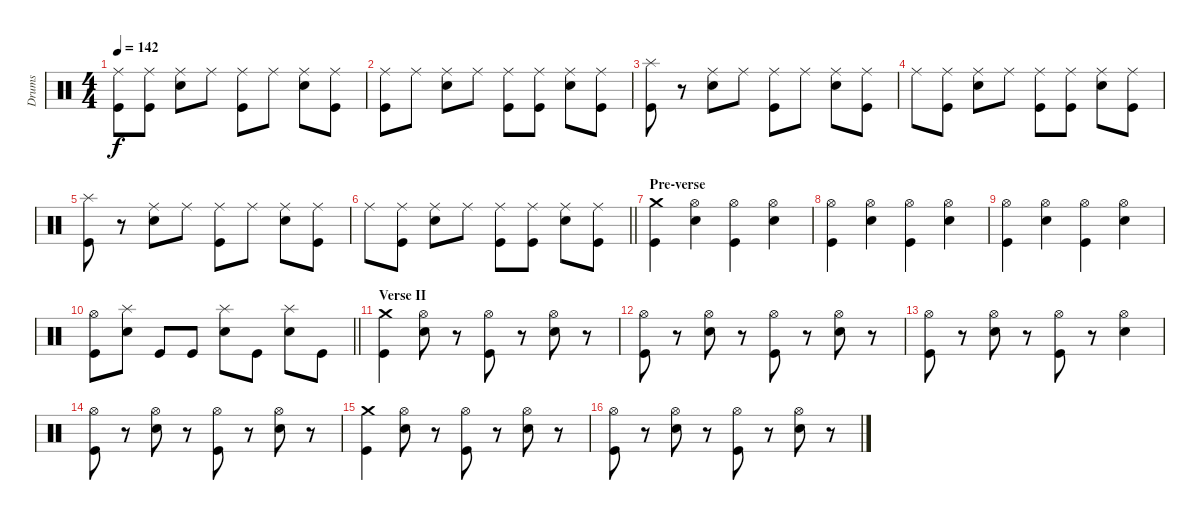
\track ("Drums" "Drums") {instrument percussion}
\staff {score}
\articulation defaults
\ts (4 4)
\tempo 142
\clef neutral
\ks c
("Ride (middle)" "Kick (hit)").8{dy f} ("Ride (middle)" "Kick (hit)").8 ("Ride (middle)" "Electric Snare (hit)").8 "Ride (middle)".8 ("Ride (middle)" "Kick (hit)").8 "Ride (middle)".8 ("Ride (middle)" "Electric Snare (hit)").8 ("Ride (middle)" "Kick (hit)").8 |
("Ride (middle)" "Kick (hit)").8 "Ride (middle)".8 ("Ride (middle)" "Electric Snare (hit)").8 "Ride (middle)".8 ("Ride (middle)" "Kick (hit)").8 ("Ride (middle)" "Kick (hit)").8 ("Ride (middle)" "Electric Snare (hit)").8 ("Ride (middle)" "Kick (hit)").8 |
("Splash (hit)" "Kick (hit)").8 r.8 ("Ride (middle)" "Electric Snare (hit)").8 "Ride (middle)".8 ("Ride (middle)" "Kick (hit)").8 "Ride (middle)".8 ("Ride (middle)" "Electric Snare (hit)").8 ("Ride (middle)" "Kick (hit)").8 |
"Ride (middle)".8 ("Ride (middle)" "Kick (hit)").8 ("Ride (middle)" "Electric Snare (hit)").8 "Ride (middle)".8 ("Ride (middle)" "Kick (hit)").8 ("Ride (middle)" "Kick (hit)").8 ("Ride (middle)" "Electric Snare (hit)").8 ("Ride (middle)" "Kick (hit)").8 |
("Splash (hit)" "Kick (hit)").8 r.8 ("Ride (middle)" "Electric Snare (hit)").8 "Ride (middle)".8 ("Ride (middle)" "Kick (hit)").8 "Ride (middle)".8 ("Ride (middle)" "Electric Snare (hit)").8 ("Ride (middle)" "Kick (hit)").8 |
\barLineRight lightlight "Ride (middle)".8
("Ride (middle)" "Kick (hit)").8 ("Ride (middle)" "Electric Snare (hit)").8 "Ride (middle)".8 ("Ride (middle)" "Kick (hit)").8 ("Ride (middle)" "Kick (hit)").8 ("Ride (middle)" "Electric Snare (hit)").8 ("Ride (middle)" "Kick (hit)").8 |
\section ("" "Pre-verse")
("Crash medium (hit)" "Kick (hit)").4 ("Hi-Hat (open)" "Electric Snare (hit)").4 ("Hi-Hat (open)" "Kick (hit)").4 ("Hi-Hat (open)" "Electric Snare (hit)").4 |
("Hi-Hat (open)" "Kick (hit)").4 ("Hi-Hat (open)" "Electric Snare (hit)").4 ("Hi-Hat (open)" "Kick (hit)").4 ("Hi-Hat (open)" "Electric Snare (hit)").4 |
("Hi-Hat (open)" "Kick (hit)").4 ("Hi-Hat (open)" "Electric Snare (hit)").4 ("Hi-Hat (open)" "Kick (hit)").4 ("Hi-Hat (open)" "Electric Snare (hit)").4 |
\barLineRight lightlight
("Hi-Hat (open)" "Kick (hit)").8 ("Splash (hit)" "Electric Snare (hit)").8 "Kick (hit)".8 "Kick (hit)".8 ("Splash (hit)" "Electric Snare (hit)").8 "Kick (hit)".8 ("Splash (hit)" "Electric Snare (hit)").8 "Kick (hit)".8 |
\section ("" "Verse II")
("Crash medium (hit)" "Kick (hit)").4 ("Hi-Hat (open)" "Electric Snare (hit)").8 r.8 ("Hi-Hat (open)" "Kick (hit)").8 r.8 ("Hi-Hat (open)" "Electric Snare (hit)").8 r.8 |
("Hi-Hat (open)" "Kick (hit)").8 r.8 ("Hi-Hat (open)" "Electric Snare (hit)").8 r.8 ("Hi-Hat (open)" "Kick (hit)").8 r.8 ("Hi-Hat (open)" "Electric Snare (hit)").8 r.8 |
("Hi-Hat (open)" "Kick (hit)").8 r.8 ("Hi-Hat (open)" "Electric Snare (hit)").8 r.8 ("Hi-Hat (open)" "Kick (hit)").8 r.8 ("Hi-Hat (open)" "Electric Snare (hit)").4 |
("Hi-Hat (open)" "Kick (hit)").8 r.8 ("Hi-Hat (open)" "Electric Snare (hit)").8 r.8 ("Hi-Hat (open)" "Kick (hit)").8 r.8 ("Hi-Hat (open)" "Electric Snare (hit)").8 r.8 |
("Crash medium (hit)" "Kick (hit)").4 ("Hi-Hat (open)" "Electric Snare (hit)").8 r.8 ("Hi-Hat (open)" "Kick (hit)").8 r.8 ("Hi-Hat (open)" "Electric Snare (hit)").8 r.8 |
("Hi-Hat (open)" "Kick (hit)").8 r.8 ("Hi-Hat (open)" "Electric Snare (hit)").8 r.8 ("Hi-Hat (open)" "Kick (hit)").8 r.8 ("Hi-Hat (open)" "Electric Snare (hit)").8 r.8
